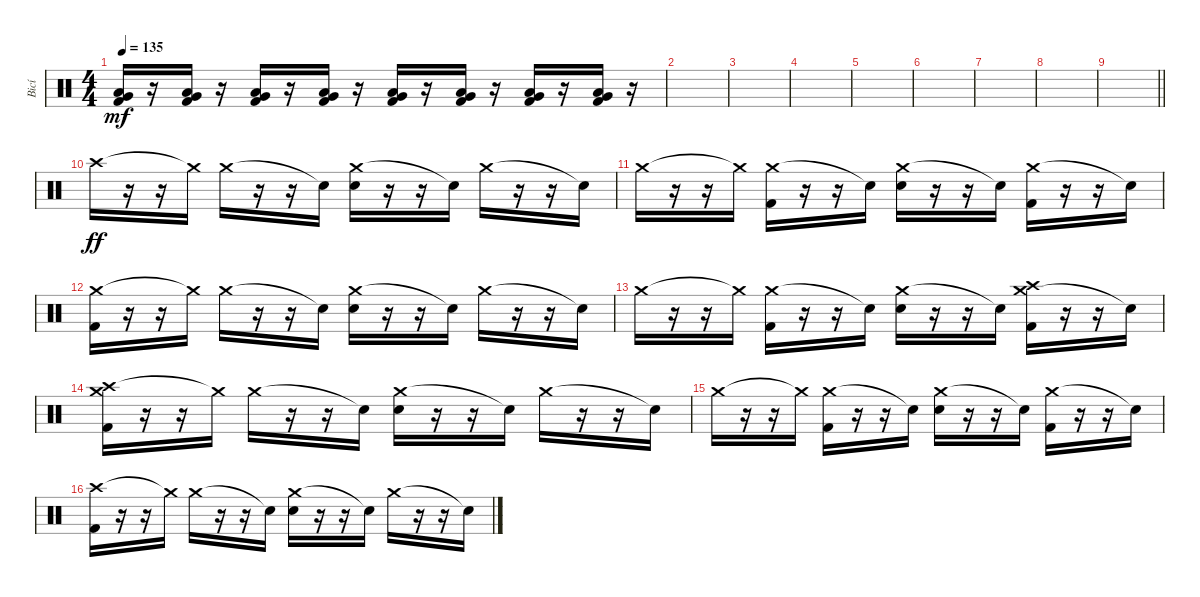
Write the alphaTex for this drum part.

\track ("Bicí" "Bicí") {instrument percussion}
\staff {score}
\articulation defaults
\ts (4 4)
\tempo 135
\clef neutral
\ks c
("Very Low Tom (hit)" "Low Tom (hit)" "Kick (hit) 2").16{dy mf} r.16 ("Very Low Tom (hit)" "Low Tom (hit)" "Kick (hit) 2").16 r.16 ("Very Low Tom (hit)" "Low Tom (hit)" "Kick (hit) 2").16 r.16 ("Very Low Tom (hit)" "Low Tom (hit)" "Kick (hit) 2").16 r.16 ("Very Low Tom (hit)" "Low Tom (hit)" "Kick (hit) 2").16 r.16 ("Very Low Tom (hit)" "Low Tom (hit)" "Kick (hit) 2").16 r.16 ("Very Low Tom (hit)" "Low Tom (hit)" "Kick (hit) 2").16 r.16 ("Very Low Tom (hit)" "Low Tom (hit)" "Kick (hit) 2").16 r.16 |
|
|
|
|
|
|
|
\barLineRight lightlight
|
"Crash high (hit)".16{dy ff} r.16 r.16 "Crash medium (hit)"{t}.16 "Crash medium (hit)".16 r.16 r.16 "Snare (hit)"{t}.16 ("Crash medium (hit)" "Electric Snare (hit)").16 r.16 r.16 "Snare (hit)"{t}.16 "Crash medium (hit)".16 r.16 r.16 "Snare (hit)"{t}.16 |
"Crash medium (hit)".16 r.16 r.16 "Crash medium (hit)"{t}.16 ("Crash medium (hit)" "Kick (hit) 2").16 r.16 r.16 "Snare (hit)"{t}.16 ("Crash medium (hit)" "Electric Snare (hit)").16 r.16 r.16 "Snare (hit)"{t}.16 ("Crash medium (hit)" "Kick (hit) 2").16 r.16 r.16 "Snare (hit)"{t}.16 |
("Crash medium (hit)" "Kick (hit) 2").16 r.16 r.16 "Crash medium (hit)"{t}.16 "Crash medium (hit)".16 r.16 r.16 "Snare (hit)"{t}.16 ("Crash medium (hit)" "Electric Snare (hit)").16 r.16 r.16 "Snare (hit)"{t}.16 "Crash medium (hit)".16 r.16 r.16 "Snare (hit)"{t}.16 |
"Crash medium (hit)".16 r.16 r.16 "Crash medium (hit)"{t}.16 ("Crash medium (hit)" "Kick (hit) 2").16 r.16 r.16 "Snare (hit)"{t}.16 ("Crash medium (hit)" "Electric Snare (hit)").16 r.16 r.16 "Snare (hit)"{t}.16 ("Crash medium (hit)" "Crash high (hit)" "Kick (hit) 2").16 r.16 r.16 "Snare (hit)"{t}.16 |
("Crash high (hit)" "Crash medium (hit)" "Kick (hit) 2").16 r.16 r.16 "Crash medium (hit)"{t}.16 "Crash medium (hit)".16 r.16 r.16 "Snare (hit)"{t}.16 ("Crash medium (hit)" "Electric Snare (hit)").16 r.16 r.16 "Snare (hit)"{t}.16 "Crash medium (hit)".16 r.16 r.16 "Snare (hit)"{t}.16 |
"Crash medium (hit)".16 r.16 r.16 "Crash medium (hit)"{t}.16 ("Crash medium (hit)" "Kick (hit) 2").16 r.16 r.16 "Snare (hit)"{t}.16 ("Crash medium (hit)" "Electric Snare (hit)").16 r.16 r.16 "Snare (hit)"{t}.16 ("Crash medium (hit)" "Kick (hit) 2").16 r.16 r.16 "Snare (hit)"{t}.16 |
("Crash high (hit)" "Kick (hit) 2").16 r.16 r.16 "Crash medium (hit)"{t}.16 "Crash medium (hit)".16 r.16 r.16 "Snare (hit)"{t}.16 ("Crash medium (hit)" "Electric Snare (hit)").16 r.16 r.16 "Snare (hit)"{t}.16 "Crash medium (hit)".16 r.16 r.16 "Snare (hit)"{t}.16
